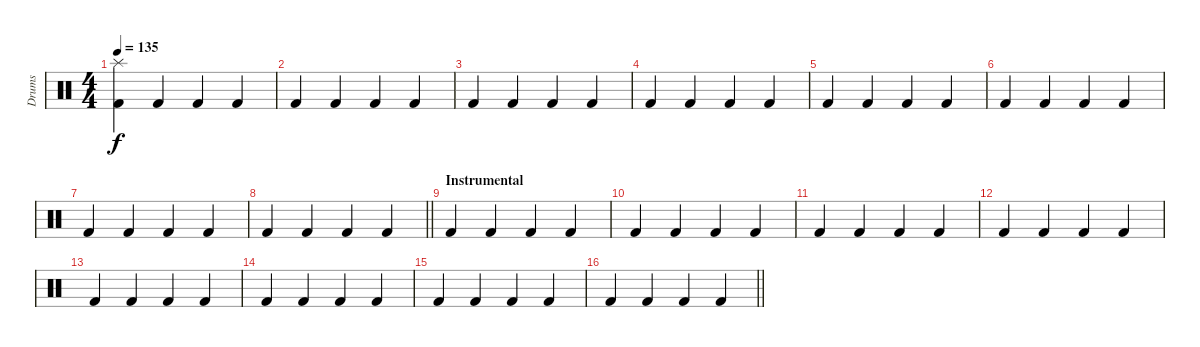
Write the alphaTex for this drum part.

\track ("Drums" "Drums") {instrument percussion}
\staff {score}
\articulation defaults
\ts (4 4)
\tempo 135
\clef neutral
\ks c
("Splash (hit)" "Kick (hit) 2").4{dy f} "Kick (hit) 2".4 "Kick (hit) 2".4 "Kick (hit) 2".4 |
"Kick (hit) 2".4 "Kick (hit) 2".4 "Kick (hit) 2".4 "Kick (hit) 2".4 |
"Kick (hit) 2".4 "Kick (hit) 2".4 "Kick (hit) 2".4 "Kick (hit) 2".4 |
"Kick (hit) 2".4 "Kick (hit) 2".4 "Kick (hit) 2".4 "Kick (hit) 2".4 |
"Kick (hit) 2".4 "Kick (hit) 2".4 "Kick (hit) 2".4 "Kick (hit) 2".4 |
"Kick (hit) 2".4 "Kick (hit) 2".4 "Kick (hit) 2".4 "Kick (hit) 2".4 |
"Kick (hit) 2".4 "Kick (hit) 2".4 "Kick (hit) 2".4 "Kick (hit) 2".4 |
\barLineRight lightlight "Kick (hit) 2".4 "Kick (hit) 2".4 "Kick (hit) 2".4 "Kick (hit) 2".4
|
\section ("" "Instrumental")
"Kick (hit) 2".4 "Kick (hit) 2".4 "Kick (hit) 2".4 "Kick (hit) 2".4 |
"Kick (hit) 2".4 "Kick (hit) 2".4 "Kick (hit) 2".4 "Kick (hit) 2".4 |
"Kick (hit) 2".4 "Kick (hit) 2".4 "Kick (hit) 2".4 "Kick (hit) 2".4 |
"Kick (hit) 2".4 "Kick (hit) 2".4 "Kick (hit) 2".4 "Kick (hit) 2".4 |
"Kick (hit) 2".4 "Kick (hit) 2".4 "Kick (hit) 2".4 "Kick (hit) 2".4 |
"Kick (hit) 2".4 "Kick (hit) 2".4 "Kick (hit) 2".4 "Kick (hit) 2".4 |
"Kick (hit) 2".4 "Kick (hit) 2".4 "Kick (hit) 2".4 "Kick (hit) 2".4 |
\barLineRight lightlight "Kick (hit) 2".4 "Kick (hit) 2".4 "Kick (hit) 2".4 "Kick (hit) 2".4
